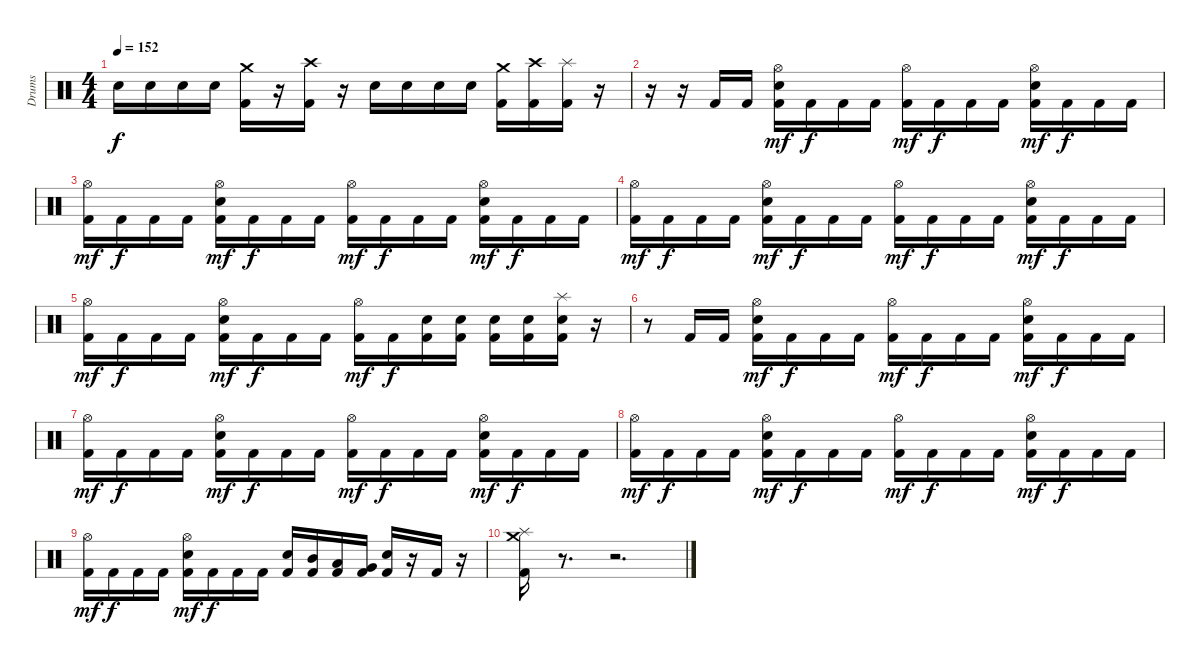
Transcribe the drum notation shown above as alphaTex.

\track ("Drums" "Drums") {instrument percussion}
\staff {score}
\articulation defaults
\ts (4 4)
\tempo 152
\clef neutral
\ks c "Snare (hit) 2".16{dy f} "Snare (hit) 2".16 "Snare (hit) 2".16 "Snare (hit) 2".16
("Crash medium (hit)" "Kick (hit) 2").16 r.16 ("Crash high (hit)" "Kick (hit) 2").16 r.16 "Snare (hit) 2".16 "Snare (hit) 2".16 "Snare (hit) 2".16 "Snare (hit) 2".16 ("Crash medium (hit)" "Kick (hit) 2").16 ("Crash high (hit)" "Kick (hit) 2").16 ("Splash (hit)" "Kick (hit) 2").16 r.16 |
r.16 r.16 "Kick (hit) 2".16 "Kick (hit) 2".16 ("Hi-Hat (open)" "Snare (hit) 2" "Kick (hit) 2").16{dy mf} "Kick (hit) 2".16{dy f} "Kick (hit) 2".16 "Kick (hit) 2".16 ("Hi-Hat (open)" "Kick (hit) 2").16{dy mf} "Kick (hit) 2".16{dy f} "Kick (hit) 2".16 "Kick (hit) 2".16 ("Hi-Hat (open)" "Snare (hit) 2" "Kick (hit) 2").16{dy mf} "Kick (hit) 2".16{dy f} "Kick (hit) 2".16 "Kick (hit) 2".16 |
("Hi-Hat (open)" "Kick (hit) 2").16{dy mf} "Kick (hit) 2".16{dy f} "Kick (hit) 2".16 "Kick (hit) 2".16 ("Hi-Hat (open)" "Snare (hit) 2" "Kick (hit) 2").16{dy mf} "Kick (hit) 2".16{dy f} "Kick (hit) 2".16 "Kick (hit) 2".16 ("Hi-Hat (open)" "Kick (hit) 2").16{dy mf} "Kick (hit) 2".16{dy f} "Kick (hit) 2".16 "Kick (hit) 2".16 ("Hi-Hat (open)" "Snare (hit) 2" "Kick (hit) 2").16{dy mf} "Kick (hit) 2".16{dy f} "Kick (hit) 2".16 "Kick (hit) 2".16 |
("Hi-Hat (open)" "Kick (hit) 2").16{dy mf} "Kick (hit) 2".16{dy f} "Kick (hit) 2".16 "Kick (hit) 2".16 ("Hi-Hat (open)" "Snare (hit) 2" "Kick (hit) 2").16{dy mf} "Kick (hit) 2".16{dy f} "Kick (hit) 2".16 "Kick (hit) 2".16 ("Hi-Hat (open)" "Kick (hit) 2").16{dy mf} "Kick (hit) 2".16{dy f} "Kick (hit) 2".16 "Kick (hit) 2".16 ("Hi-Hat (open)" "Snare (hit) 2" "Kick (hit) 2").16{dy mf} "Kick (hit) 2".16{dy f} "Kick (hit) 2".16 "Kick (hit) 2".16 |
("Hi-Hat (open)" "Kick (hit) 2").16{dy mf} "Kick (hit) 2".16{dy f} "Kick (hit) 2".16 "Kick (hit) 2".16 ("Hi-Hat (open)" "Snare (hit) 2" "Kick (hit) 2").16{dy mf} "Kick (hit) 2".16{dy f} "Kick (hit) 2".16 "Kick (hit) 2".16 ("Hi-Hat (open)" "Kick (hit) 2").16{dy mf} "Kick (hit) 2".16{dy f} ("Snare (hit) 2" "Kick (hit) 2").16 ("Snare (hit) 2" "Kick (hit) 2").16 ("Snare (hit) 2" "Kick (hit) 2").16 ("Snare (hit) 2" "Kick (hit) 2").16 ("Splash (hit)" "Snare (hit) 2" "Kick (hit) 2").16 r.16 |
r.8 "Kick (hit) 2".16 "Kick (hit) 2".16 ("Hi-Hat (open)" "Snare (hit) 2" "Kick (hit) 2").16{dy mf} "Kick (hit) 2".16{dy f} "Kick (hit) 2".16 "Kick (hit) 2".16 ("Hi-Hat (open)" "Kick (hit) 2").16{dy mf} "Kick (hit) 2".16{dy f} "Kick (hit) 2".16 "Kick (hit) 2".16 ("Hi-Hat (open)" "Snare (hit) 2" "Kick (hit) 2").16{dy mf} "Kick (hit) 2".16{dy f} "Kick (hit) 2".16 "Kick (hit) 2".16 |
("Hi-Hat (open)" "Kick (hit) 2").16{dy mf} "Kick (hit) 2".16{dy f} "Kick (hit) 2".16 "Kick (hit) 2".16 ("Hi-Hat (open)" "Snare (hit) 2" "Kick (hit) 2").16{dy mf} "Kick (hit) 2".16{dy f} "Kick (hit) 2".16 "Kick (hit) 2".16 ("Hi-Hat (open)" "Kick (hit) 2").16{dy mf} "Kick (hit) 2".16{dy f} "Kick (hit) 2".16 "Kick (hit) 2".16 ("Hi-Hat (open)" "Snare (hit) 2" "Kick (hit) 2").16{dy mf} "Kick (hit) 2".16{dy f} "Kick (hit) 2".16 "Kick (hit) 2".16 |
("Hi-Hat (open)" "Kick (hit) 2").16{dy mf} "Kick (hit) 2".16{dy f} "Kick (hit) 2".16 "Kick (hit) 2".16 ("Hi-Hat (open)" "Snare (hit) 2" "Kick (hit) 2").16{dy mf} "Kick (hit) 2".16{dy f} "Kick (hit) 2".16 "Kick (hit) 2".16 ("Hi-Hat (open)" "Kick (hit) 2").16{dy mf} "Kick (hit) 2".16{dy f} "Kick (hit) 2".16 "Kick (hit) 2".16 ("Hi-Hat (open)" "Snare (hit) 2" "Kick (hit) 2").16{dy mf} "Kick (hit) 2".16{dy f} "Kick (hit) 2".16 "Kick (hit) 2".16 |
("Hi-Hat (open)" "Kick (hit) 2").16{dy mf} "Kick (hit) 2".16{dy f} "Kick (hit) 2".16 "Kick (hit) 2".16 ("Hi-Hat (open)" "Snare (hit) 2" "Kick (hit) 2").16{dy mf} "Kick (hit) 2".16{dy f} "Kick (hit) 2".16 "Kick (hit) 2".16 ("Snare (hit) 2" "Kick (hit) 2").16 ("Mid Tom (hit)" "Kick (hit) 2").16 ("Low Tom (hit)" "Kick (hit) 2").16 ("Very Low Tom (hit)" "Kick (hit) 2").16 ("Snare (hit) 2" "Kick (hit) 2").16 r.16 "Kick (hit) 2".16 r.16 |
("Crash medium (hit)" "Splash (hit)" "Kick (hit) 2").16 r.8{d} r.2{d}
